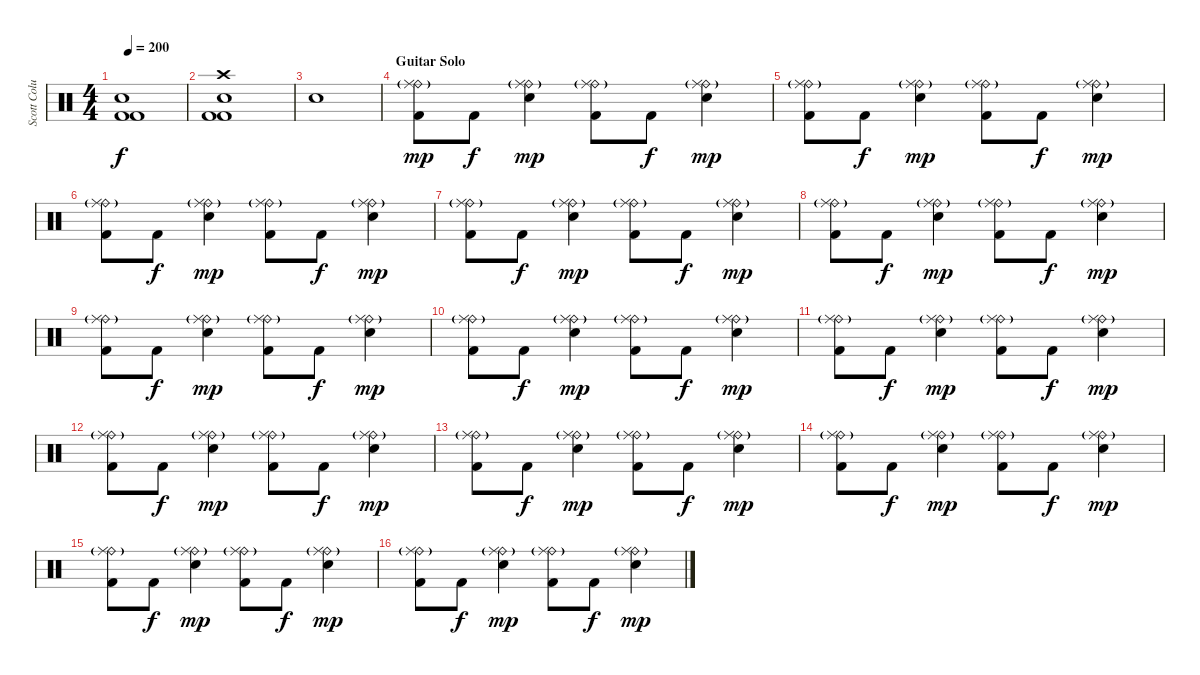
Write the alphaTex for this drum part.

\track ("Scott Columbus" "Scott Colu") {instrument percussion}
\staff {score}
\articulation defaults
\ts (4 4)
\tempo 200
\clef neutral
\ks c
("Snare (hit) 2" "Kick (hit) 2" "Kick (hit) 2").1{dy f} |
("Crash high (hit)" "Snare (hit) 2" "Kick (hit) 2" "Kick (hit) 2").1 |
"Snare (hit)"{x}.1 |
\section ("" "Guitar Solo")
("Ride (bell)"{g} "Ride (middle)" "Kick (hit) 2").8{dy mp} "Kick (hit) 2".8{dy f} ("Ride (bell)"{g} "Ride (middle)" "Snare (hit) 2").4{dy mp} ("Ride (bell)"{g} "Ride (middle)" "Kick (hit) 2").8 "Kick (hit) 2".8{dy f} ("Ride (bell)"{g} "Ride (middle)" "Snare (hit) 2").4{dy mp} |
("Ride (bell)"{g} "Ride (middle)" "Kick (hit) 2").8 "Kick (hit) 2".8{dy f} ("Ride (bell)"{g} "Ride (middle)" "Snare (hit) 2").4{dy mp} ("Ride (bell)"{g} "Ride (middle)" "Kick (hit) 2").8 "Kick (hit) 2".8{dy f} ("Ride (bell)"{g} "Ride (middle)" "Snare (hit) 2").4{dy mp} |
("Ride (bell)"{g} "Ride (middle)" "Kick (hit) 2").8 "Kick (hit) 2".8{dy f} ("Ride (bell)"{g} "Ride (middle)" "Snare (hit) 2").4{dy mp} ("Ride (bell)"{g} "Ride (middle)" "Kick (hit) 2").8 "Kick (hit) 2".8{dy f} ("Ride (bell)"{g} "Ride (middle)" "Snare (hit) 2").4{dy mp} |
("Ride (bell)"{g} "Ride (middle)" "Kick (hit) 2").8 "Kick (hit) 2".8{dy f} ("Ride (bell)"{g} "Ride (middle)" "Snare (hit) 2").4{dy mp} ("Ride (bell)"{g} "Ride (middle)" "Kick (hit) 2").8 "Kick (hit) 2".8{dy f} ("Ride (bell)"{g} "Ride (middle)" "Snare (hit) 2").4{dy mp} |
("Ride (bell)"{g} "Ride (middle)" "Kick (hit) 2").8 "Kick (hit) 2".8{dy f} ("Ride (bell)"{g} "Ride (middle)" "Snare (hit) 2").4{dy mp} ("Ride (bell)"{g} "Ride (middle)" "Kick (hit) 2").8 "Kick (hit) 2".8{dy f} ("Ride (bell)"{g} "Ride (middle)" "Snare (hit) 2").4{dy mp} |
("Ride (bell)"{g} "Ride (middle)" "Kick (hit) 2").8 "Kick (hit) 2".8{dy f} ("Ride (bell)"{g} "Ride (middle)" "Snare (hit) 2").4{dy mp} ("Ride (bell)"{g} "Ride (middle)" "Kick (hit) 2").8 "Kick (hit) 2".8{dy f} ("Ride (bell)"{g} "Ride (middle)" "Snare (hit) 2").4{dy mp} |
("Ride (bell)"{g} "Ride (middle)" "Kick (hit) 2").8 "Kick (hit) 2".8{dy f} ("Ride (bell)"{g} "Ride (middle)" "Snare (hit) 2").4{dy mp} ("Ride (bell)"{g} "Ride (middle)" "Kick (hit) 2").8 "Kick (hit) 2".8{dy f} ("Ride (bell)"{g} "Ride (middle)" "Snare (hit) 2").4{dy mp} |
("Ride (bell)"{g} "Ride (middle)" "Kick (hit) 2").8 "Kick (hit) 2".8{dy f} ("Ride (bell)"{g} "Ride (middle)" "Snare (hit) 2").4{dy mp} ("Ride (bell)"{g} "Ride (middle)" "Kick (hit) 2").8 "Kick (hit) 2".8{dy f} ("Ride (bell)"{g} "Ride (middle)" "Snare (hit) 2").4{dy mp} |
("Ride (bell)"{g} "Ride (middle)" "Kick (hit) 2").8 "Kick (hit) 2".8{dy f} ("Ride (bell)"{g} "Ride (middle)" "Snare (hit) 2").4{dy mp} ("Ride (bell)"{g} "Ride (middle)" "Kick (hit) 2").8 "Kick (hit) 2".8{dy f} ("Ride (bell)"{g} "Ride (middle)" "Snare (hit) 2").4{dy mp} |
("Ride (bell)"{g} "Ride (middle)" "Kick (hit) 2").8 "Kick (hit) 2".8{dy f} ("Ride (bell)"{g} "Ride (middle)" "Snare (hit) 2").4{dy mp} ("Ride (bell)"{g} "Ride (middle)" "Kick (hit) 2").8 "Kick (hit) 2".8{dy f} ("Ride (bell)"{g} "Ride (middle)" "Snare (hit) 2").4{dy mp} |
("Ride (bell)"{g} "Ride (middle)" "Kick (hit) 2").8 "Kick (hit) 2".8{dy f} ("Ride (bell)"{g} "Ride (middle)" "Snare (hit) 2").4{dy mp} ("Ride (bell)"{g} "Ride (middle)" "Kick (hit) 2").8 "Kick (hit) 2".8{dy f} ("Ride (bell)"{g} "Ride (middle)" "Snare (hit) 2").4{dy mp} |
("Ride (bell)"{g} "Ride (middle)" "Kick (hit) 2").8 "Kick (hit) 2".8{dy f} ("Ride (bell)"{g} "Ride (middle)" "Snare (hit) 2").4{dy mp} ("Ride (bell)"{g} "Ride (middle)" "Kick (hit) 2").8 "Kick (hit) 2".8{dy f} ("Ride (bell)"{g} "Ride (middle)" "Snare (hit) 2").4{dy mp} |
("Ride (bell)"{g} "Ride (middle)" "Kick (hit) 2").8 "Kick (hit) 2".8{dy f} ("Ride (bell)"{g} "Ride (middle)" "Snare (hit) 2").4{dy mp} ("Ride (bell)"{g} "Ride (middle)" "Kick (hit) 2").8 "Kick (hit) 2".8{dy f} ("Ride (bell)"{g} "Ride (middle)" "Snare (hit) 2").4{dy mp}
